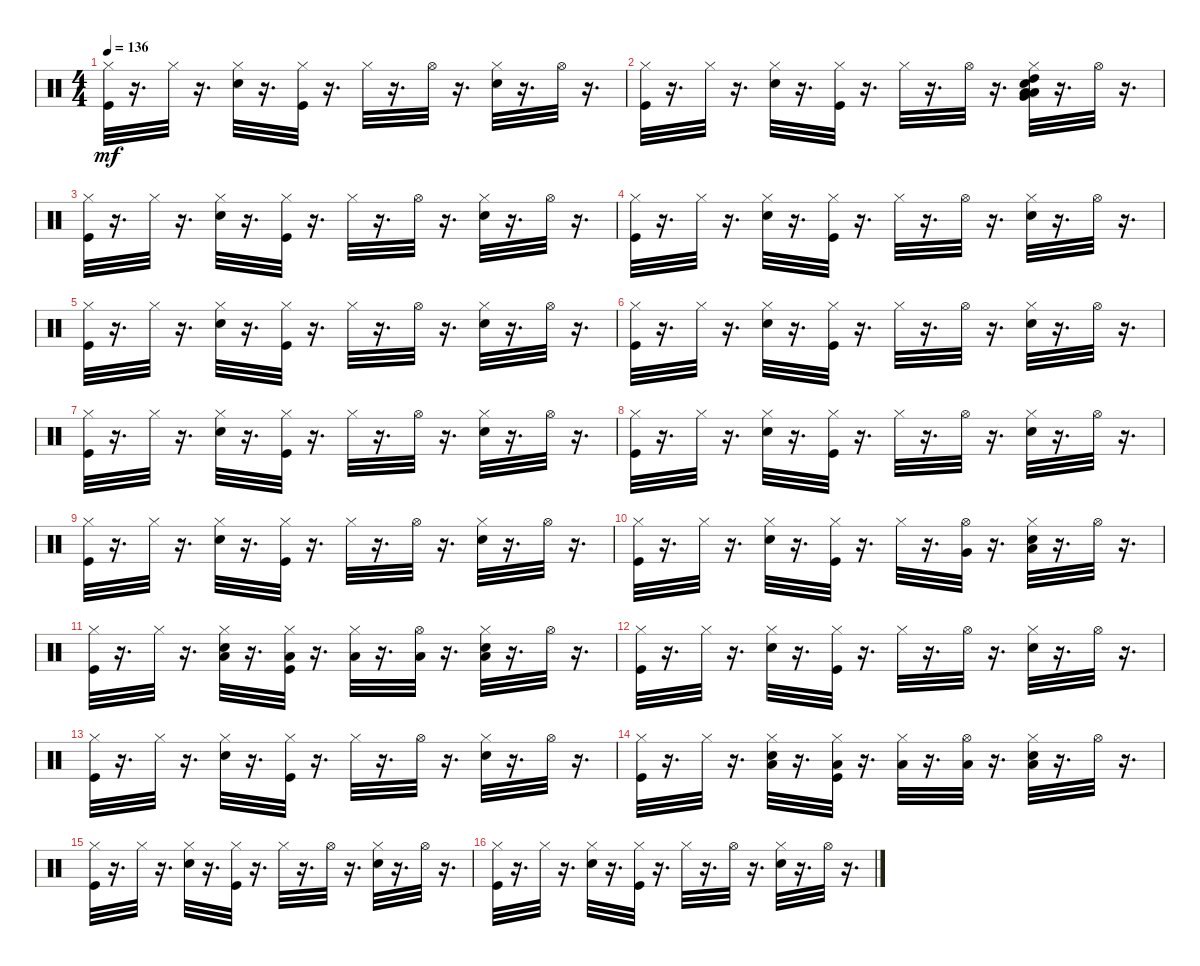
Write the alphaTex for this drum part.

\track "" {instrument percussion}
\staff {score}
\articulation defaults
\ts (4 4)
\tempo 136
\clef neutral
\ks c
("Kick (hit)" "Hi-Hat (closed)").32{dy mf} r.16{d} "Hi-Hat (closed)".32 r.16{d} ("Snare (hit) 2" "Hi-Hat (closed)").32 r.16{d} ("Kick (hit)" "Hi-Hat (closed)").32 r.16{d} "Hi-Hat (closed)".32 r.16{d} "Hi-Hat (open)".32 r.16{d} ("Snare (hit) 2" "Hi-Hat (closed)").32 r.16{d} "Hi-Hat (open)".32 r.16{d} |
("Kick (hit)" "Hi-Hat (closed)").32 r.16{d} "Hi-Hat (closed)".32 r.16{d} ("Snare (hit) 2" "Hi-Hat (closed)").32 r.16{d} ("Kick (hit)" "Hi-Hat (closed)").32 r.16{d} "Hi-Hat (closed)".32 r.16{d} "Hi-Hat (open)".32 r.16{d} ("High Tom (hit)" "Low Tom (hit)" "Very Low Tom (hit)" "Low Floor Tom (hit)" "Snare (hit) 2" "Hi-Hat (closed)").32 r.16{d} "Hi-Hat (open)".32 r.16{d} |
("Kick (hit)" "Hi-Hat (closed)").32 r.16{d} "Hi-Hat (closed)".32 r.16{d} ("Snare (hit) 2" "Hi-Hat (closed)").32 r.16{d} ("Kick (hit)" "Hi-Hat (closed)").32 r.16{d} "Hi-Hat (closed)".32 r.16{d} "Hi-Hat (open)".32 r.16{d} ("Snare (hit) 2" "Hi-Hat (closed)").32 r.16{d} "Hi-Hat (open)".32 r.16{d} |
("Kick (hit)" "Hi-Hat (closed)").32 r.16{d} "Hi-Hat (closed)".32 r.16{d} ("Snare (hit) 2" "Hi-Hat (closed)").32 r.16{d} ("Kick (hit)" "Hi-Hat (closed)").32 r.16{d} "Hi-Hat (closed)".32 r.16{d} "Hi-Hat (open)".32 r.16{d} ("Snare (hit) 2" "Hi-Hat (closed)").32 r.16{d} "Hi-Hat (open)".32 r.16{d} |
("Kick (hit)" "Hi-Hat (closed)").32 r.16{d} "Hi-Hat (closed)".32 r.16{d} ("Snare (hit) 2" "Hi-Hat (closed)").32 r.16{d} ("Kick (hit)" "Hi-Hat (closed)").32 r.16{d} "Hi-Hat (closed)".32 r.16{d} "Hi-Hat (open)".32 r.16{d} ("Snare (hit) 2" "Hi-Hat (closed)").32 r.16{d} "Hi-Hat (open)".32 r.16{d} |
("Kick (hit)" "Hi-Hat (closed)").32 r.16{d} "Hi-Hat (closed)".32 r.16{d} ("Snare (hit) 2" "Hi-Hat (closed)").32 r.16{d} ("Kick (hit)" "Hi-Hat (closed)").32 r.16{d} "Hi-Hat (closed)".32 r.16{d} "Hi-Hat (open)".32 r.16{d} ("Snare (hit) 2" "Hi-Hat (closed)").32 r.16{d} "Hi-Hat (open)".32 r.16{d} |
("Kick (hit)" "Hi-Hat (closed)").32 r.16{d} "Hi-Hat (closed)".32 r.16{d} ("Snare (hit) 2" "Hi-Hat (closed)").32 r.16{d} ("Kick (hit)" "Hi-Hat (closed)").32 r.16{d} "Hi-Hat (closed)".32 r.16{d} "Hi-Hat (open)".32 r.16{d} ("Snare (hit) 2" "Hi-Hat (closed)").32 r.16{d} "Hi-Hat (open)".32 r.16{d} |
("Kick (hit)" "Hi-Hat (closed)").32 r.16{d} "Hi-Hat (closed)".32 r.16{d} ("Snare (hit) 2" "Hi-Hat (closed)").32 r.16{d} ("Kick (hit)" "Hi-Hat (closed)").32 r.16{d} "Hi-Hat (closed)".32 r.16{d} "Hi-Hat (open)".32 r.16{d} ("Snare (hit) 2" "Hi-Hat (closed)").32 r.16{d} "Hi-Hat (open)".32 r.16{d} |
("Kick (hit)" "Hi-Hat (closed)").32 r.16{d} "Hi-Hat (closed)".32 r.16{d} ("Snare (hit) 2" "Hi-Hat (closed)").32 r.16{d} ("Kick (hit)" "Hi-Hat (closed)").32 r.16{d} "Hi-Hat (closed)".32 r.16{d} "Hi-Hat (open)".32 r.16{d} ("Snare (hit) 2" "Hi-Hat (closed)").32 r.16{d} "Hi-Hat (open)".32 r.16{d} |
("Kick (hit)" "Hi-Hat (closed)").32 r.16{d} "Hi-Hat (closed)".32 r.16{d} ("Snare (hit) 2" "Hi-Hat (closed)").32 r.16{d} ("Kick (hit)" "Hi-Hat (closed)").32 r.16{d} "Hi-Hat (closed)".32 r.16{d} ("Very Low Tom (hit)" "Hi-Hat (open)").32 r.16{d} ("Low Floor Tom (hit)" "Snare (hit) 2" "Hi-Hat (closed)").32 r.16{d} "Hi-Hat (open)".32 r.16{d} |
("Kick (hit)" "Hi-Hat (closed)").32 r.16{d} "Hi-Hat (closed)".32 r.16{d} ("Low Floor Tom (hit)" "Snare (hit) 2" "Hi-Hat (closed)").32 r.16{d} ("Low Floor Tom (hit)" "Kick (hit)" "Hi-Hat (closed)").32 r.16{d} ("Low Floor Tom (hit)" "Hi-Hat (closed)").32 r.16{d} ("Low Floor Tom (hit)" "Hi-Hat (open)").32 r.16{d} ("Low Floor Tom (hit)" "Snare (hit) 2" "Hi-Hat (closed)").32 r.16{d} "Hi-Hat (open)".32 r.16{d} |
("Kick (hit)" "Hi-Hat (closed)").32 r.16{d} "Hi-Hat (closed)".32 r.16{d} ("Snare (hit) 2" "Hi-Hat (closed)").32 r.16{d} ("Kick (hit)" "Hi-Hat (closed)").32 r.16{d} "Hi-Hat (closed)".32 r.16{d} "Hi-Hat (open)".32 r.16{d} ("Snare (hit) 2" "Hi-Hat (closed)").32 r.16{d} "Hi-Hat (open)".32 r.16{d} |
("Kick (hit)" "Hi-Hat (closed)").32 r.16{d} "Hi-Hat (closed)".32 r.16{d} ("Snare (hit) 2" "Hi-Hat (closed)").32 r.16{d} ("Kick (hit)" "Hi-Hat (closed)").32 r.16{d} "Hi-Hat (closed)".32 r.16{d} "Hi-Hat (open)".32 r.16{d} ("Snare (hit) 2" "Hi-Hat (closed)").32 r.16{d} "Hi-Hat (open)".32 r.16{d} |
("Kick (hit)" "Hi-Hat (closed)").32 r.16{d} "Hi-Hat (closed)".32 r.16{d} ("Low Floor Tom (hit)" "Snare (hit) 2" "Hi-Hat (closed)").32 r.16{d} ("Low Floor Tom (hit)" "Kick (hit)" "Hi-Hat (closed)").32 r.16{d} ("Low Floor Tom (hit)" "Hi-Hat (closed)").32 r.16{d} ("Low Floor Tom (hit)" "Hi-Hat (open)").32 r.16{d} ("Low Floor Tom (hit)" "Snare (hit) 2" "Hi-Hat (closed)").32 r.16{d} "Hi-Hat (open)".32 r.16{d} |
("Kick (hit)" "Hi-Hat (closed)").32 r.16{d} "Hi-Hat (closed)".32 r.16{d} ("Snare (hit) 2" "Hi-Hat (closed)").32 r.16{d} ("Kick (hit)" "Hi-Hat (closed)").32 r.16{d} "Hi-Hat (closed)".32 r.16{d} "Hi-Hat (open)".32 r.16{d} ("Snare (hit) 2" "Hi-Hat (closed)").32 r.16{d} "Hi-Hat (open)".32 r.16{d} |
("Kick (hit)" "Hi-Hat (closed)").32 r.16{d} "Hi-Hat (closed)".32 r.16{d} ("Snare (hit) 2" "Hi-Hat (closed)").32 r.16{d} ("Kick (hit)" "Hi-Hat (closed)").32 r.16{d} "Hi-Hat (closed)".32 r.16{d} "Hi-Hat (open)".32 r.16{d} ("Snare (hit) 2" "Hi-Hat (closed)").32 r.16{d} "Hi-Hat (open)".32 r.16{d}
